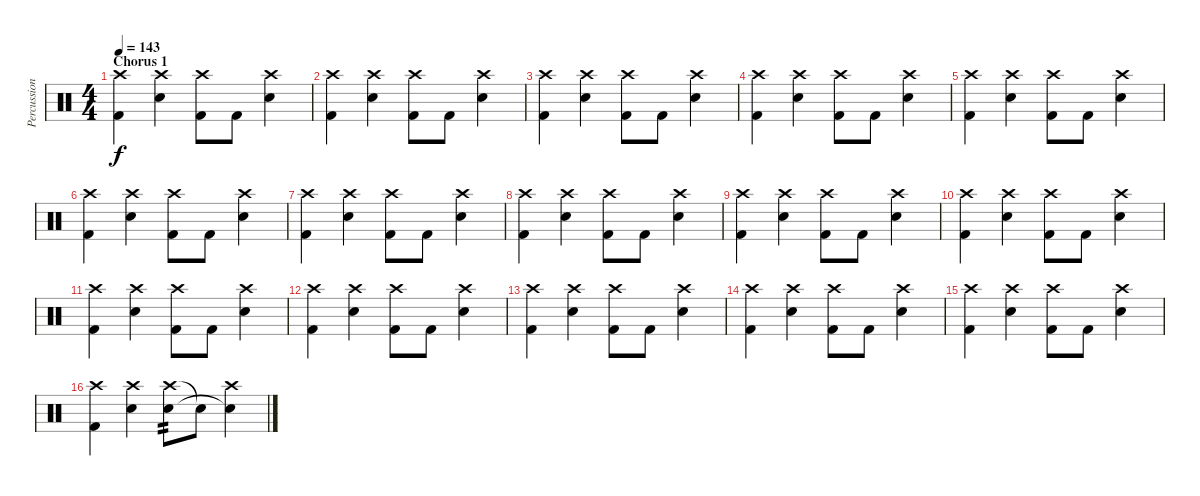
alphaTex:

\track ("Percussion" "Percussion") {instrument percussion}
\staff {score}
\articulation defaults
\ts (4 4)
\section ("" "Chorus 1")
\tempo 143
\clef neutral
\ks c
("Crash high (hit)" "Kick (hit) 2").4{dy f} ("Crash high (hit)" "Electric Snare (hit)").4 ("Crash high (hit)" "Kick (hit) 2").8 "Kick (hit) 2".8 ("Crash high (hit)" "Electric Snare (hit)").4 |
("Crash high (hit)" "Kick (hit) 2").4 ("Crash high (hit)" "Electric Snare (hit)").4 ("Crash high (hit)" "Kick (hit) 2").8 "Kick (hit) 2".8 ("Crash high (hit)" "Electric Snare (hit)").4 |
("Crash high (hit)" "Kick (hit) 2").4 ("Crash high (hit)" "Electric Snare (hit)").4 ("Crash high (hit)" "Kick (hit) 2").8 "Kick (hit) 2".8 ("Crash high (hit)" "Electric Snare (hit)").4 |
("Crash high (hit)" "Kick (hit) 2").4 ("Crash high (hit)" "Electric Snare (hit)").4 ("Crash high (hit)" "Kick (hit) 2").8 "Kick (hit) 2".8 ("Crash high (hit)" "Electric Snare (hit)").4 |
("Crash high (hit)" "Kick (hit) 2").4 ("Crash high (hit)" "Electric Snare (hit)").4 ("Crash high (hit)" "Kick (hit) 2").8 "Kick (hit) 2".8 ("Crash high (hit)" "Electric Snare (hit)").4 |
("Crash high (hit)" "Kick (hit) 2").4 ("Crash high (hit)" "Electric Snare (hit)").4 ("Crash high (hit)" "Kick (hit) 2").8 "Kick (hit) 2".8 ("Crash high (hit)" "Electric Snare (hit)").4 |
("Crash high (hit)" "Kick (hit) 2").4 ("Crash high (hit)" "Electric Snare (hit)").4 ("Crash high (hit)" "Kick (hit) 2").8 "Kick (hit) 2".8 ("Crash high (hit)" "Electric Snare (hit)").4 |
("Crash high (hit)" "Kick (hit) 2").4 ("Crash high (hit)" "Electric Snare (hit)").4 ("Crash high (hit)" "Kick (hit) 2").8 "Kick (hit) 2".8 ("Crash high (hit)" "Electric Snare (hit)").4 |
("Crash high (hit)" "Kick (hit) 2").4 ("Crash high (hit)" "Electric Snare (hit)").4 ("Crash high (hit)" "Kick (hit) 2").8 "Kick (hit) 2".8 ("Crash high (hit)" "Electric Snare (hit)").4 |
("Crash high (hit)" "Kick (hit) 2").4 ("Crash high (hit)" "Electric Snare (hit)").4 ("Crash high (hit)" "Kick (hit) 2").8 "Kick (hit) 2".8 ("Crash high (hit)" "Electric Snare (hit)").4 |
("Crash high (hit)" "Kick (hit) 2").4 ("Crash high (hit)" "Electric Snare (hit)").4 ("Crash high (hit)" "Kick (hit) 2").8 "Kick (hit) 2".8 ("Crash high (hit)" "Electric Snare (hit)").4 |
("Crash high (hit)" "Kick (hit) 2").4 ("Crash high (hit)" "Electric Snare (hit)").4 ("Crash high (hit)" "Kick (hit) 2").8 "Kick (hit) 2".8 ("Crash high (hit)" "Electric Snare (hit)").4 |
("Crash high (hit)" "Kick (hit) 2").4 ("Crash high (hit)" "Electric Snare (hit)").4 ("Crash high (hit)" "Kick (hit) 2").8 "Kick (hit) 2".8 ("Crash high (hit)" "Electric Snare (hit)").4 |
("Crash high (hit)" "Kick (hit) 2").4 ("Crash high (hit)" "Electric Snare (hit)").4 ("Crash high (hit)" "Kick (hit) 2").8 "Kick (hit) 2".8 ("Crash high (hit)" "Electric Snare (hit)").4 |
("Crash high (hit)" "Kick (hit) 2").4 ("Crash high (hit)" "Electric Snare (hit)").4 ("Crash high (hit)" "Kick (hit) 2").8 "Kick (hit) 2".8 ("Crash high (hit)" "Electric Snare (hit)").4 |
("Crash high (hit)" "Kick (hit) 2").4 ("Crash high (hit)" "Electric Snare (hit)").4 ("Crash high (hit)" "Electric Snare (hit)").8{tp 2} "Snare (hit)"{t}.8 ("Crash high (hit)" "Snare (hit)"{t}).4
